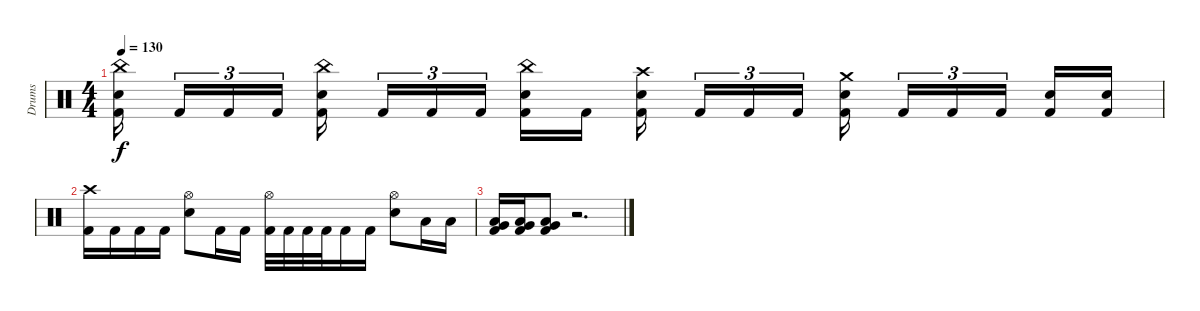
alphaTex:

\track ("Drums" "Drums") {instrument percussion}
\staff {score}
\articulation defaults
\ts (4 4)
\tempo 130
\clef neutral
\ks c
("China (hit)" "Electric Snare (hit)" "Kick (hit) 2").16{dy f} "Kick (hit) 2".16{tu (3 2)} "Kick (hit) 2".16{tu (3 2)} "Kick (hit) 2".16{tu (3 2)} ("China (hit)" "Electric Snare (hit)" "Kick (hit) 2").16 "Kick (hit) 2".16{tu (3 2)} "Kick (hit) 2".16{tu (3 2)} "Kick (hit) 2".16{tu (3 2)} ("China (hit)" "Electric Snare (hit)" "Kick (hit) 2").16 "Kick (hit) 2".16 ("Crash high (hit)" "Electric Snare (hit)" "Kick (hit) 2").16 "Kick (hit) 2".16{tu (3 2)} "Kick (hit) 2".16{tu (3 2)} "Kick (hit) 2".16{tu (3 2)} ("Crash medium (hit)" "Electric Snare (hit)" "Kick (hit) 2").16 "Kick (hit) 2".16{tu (3 2)} "Kick (hit) 2".16{tu (3 2)} "Kick (hit) 2".16{tu (3 2)} ("Electric Snare (hit)" "Kick (hit) 2").16 ("Electric Snare (hit)" "Kick (hit) 2").16 |
("Crash high (hit)" "Kick (hit) 2").16 "Kick (hit) 2".16 "Kick (hit) 2".16 "Kick (hit) 2".16 ("Hi-Hat (open)" "Electric Snare (hit)").8 "Kick (hit) 2".16 "Kick (hit) 2".16 ("Hi-Hat (open)" "Kick (hit) 2").32 "Kick (hit) 2".32 "Kick (hit) 2".32 "Kick (hit) 2".32 "Kick (hit) 2".16 "Kick (hit) 2".16 ("Hi-Hat (open)" "Electric Snare (hit)").8 "Low Tom (hit)".16 "Low Tom (hit)".16 |
("Low Floor Tom (hit)" "Very Low Tom (hit)" "Kick (hit) 2").16 ("Low Floor Tom (hit)" "Very Low Tom (hit)" "Kick (hit) 2").16 ("Low Floor Tom (hit)" "Very Low Tom (hit)" "Kick (hit) 2").8 r.2{d}
